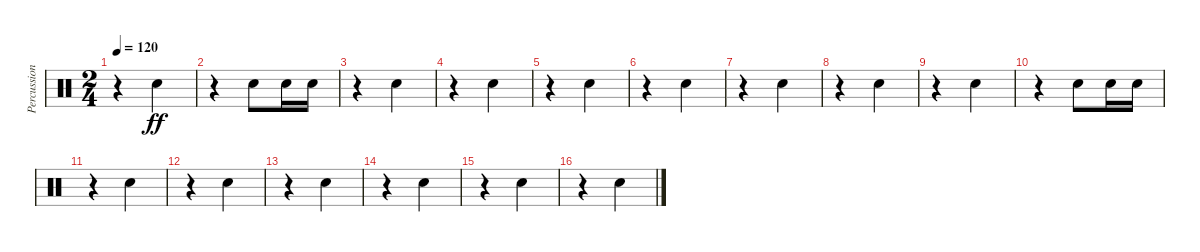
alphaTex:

\track ("Percussion" "Percussion") {instrument percussion}
\staff {score}
\articulation defaults
\ts (2 4)
\tempo 120
\clef neutral
\ks c
r.4{dy ff} "Snare (hit) 2".4 |
r.4 "Snare (hit) 2".8 "Snare (hit) 2".16 "Snare (hit) 2".16 |
r.4 "Snare (hit) 2".4 |
r.4 "Snare (hit) 2".4 |
r.4 "Snare (hit) 2".4 |
r.4 "Snare (hit) 2".4 |
r.4 "Snare (hit) 2".4 |
r.4 "Snare (hit) 2".4 |
r.4 "Snare (hit) 2".4 |
r.4 "Snare (hit) 2".8 "Snare (hit) 2".16 "Snare (hit) 2".16 |
r.4 "Snare (hit) 2".4 |
r.4 "Snare (hit) 2".4 |
r.4 "Snare (hit) 2".4 |
r.4 "Snare (hit) 2".4 |
r.4 "Snare (hit) 2".4 |
r.4 "Snare (hit) 2".4
